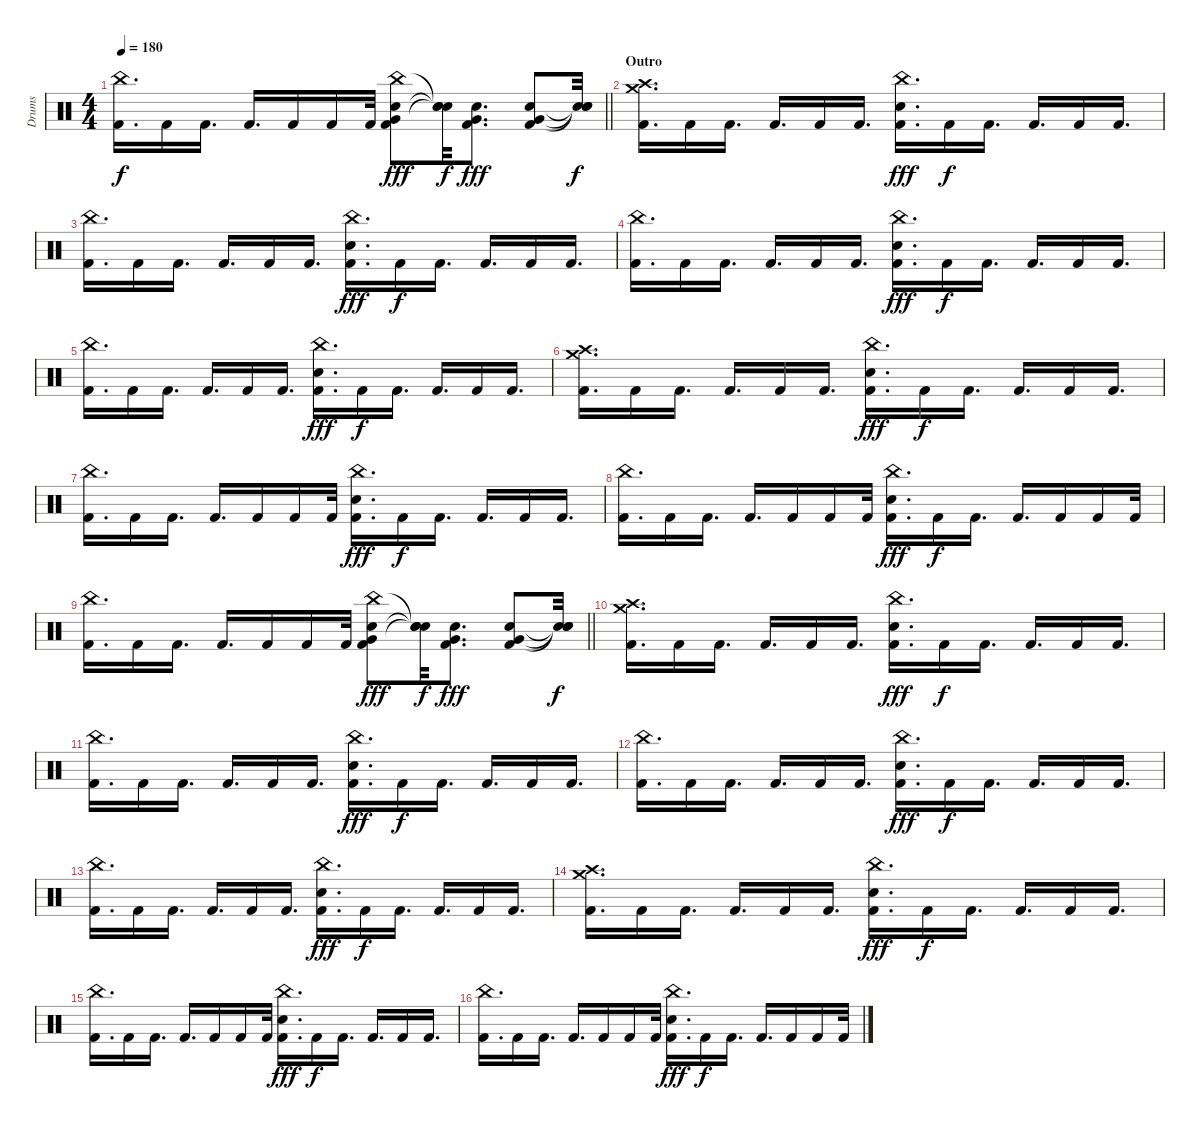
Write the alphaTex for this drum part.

\track ("Drums" "Drums") {instrument percussion}
\staff {score}
\articulation defaults
\ts (4 4)
\tempo 180
\clef neutral
\barLineRight lightlight
\ks c
("China (hit)" "Kick (hit) 2").16{d dy f} "Kick (hit) 2".16 "Kick (hit) 2".16{d} "Kick (hit) 2".16{d} "Kick (hit) 2".16 "Kick (hit) 2".16 "Kick (hit) 2".32 ("China (hit)" "Snare (hit) 2" "Very Low Tom (hit)" "Kick (hit) 2").8{dy fff} ("Snare (hit)"{t} "Snare (hit)"{t} "Snare (hit)"{t}).32{dy f} ("Snare (hit) 2" "Very Low Tom (hit)" "Kick (hit) 2").8{d dy fff} ("Snare (hit) 2" "Very Low Tom (hit)" "Kick (hit) 2").8 ("Snare (hit)"{t} "Snare (hit)"{t} "Snare (hit)"{t}).32{dy f} |
\section ("" "Outro")
("Crash high (hit)" "Crash medium (hit)" "Kick (hit) 2").16{d} "Kick (hit) 2".16 "Kick (hit) 2".16{d} "Kick (hit) 2".16{d} "Kick (hit) 2".16 "Kick (hit) 2".16{d} ("China (hit)" "Snare (hit) 2" "Kick (hit) 2").16{d dy fff} "Kick (hit) 2".16{dy f} "Kick (hit) 2".16{d} "Kick (hit) 2".16{d} "Kick (hit) 2".16 "Kick (hit) 2".16{d} |
("China (hit)" "Kick (hit) 2").16{d} "Kick (hit) 2".16 "Kick (hit) 2".16{d} "Kick (hit) 2".16{d} "Kick (hit) 2".16 "Kick (hit) 2".16{d} ("China (hit)" "Kick (hit) 2" "Snare (hit) 2").16{d dy fff} "Kick (hit) 2".16{dy f} "Kick (hit) 2".16{d} "Kick (hit) 2".16{d} "Kick (hit) 2".16 "Kick (hit) 2".16{d} |
("China (hit)" "Kick (hit) 2").16{d} "Kick (hit) 2".16 "Kick (hit) 2".16{d} "Kick (hit) 2".16{d} "Kick (hit) 2".16 "Kick (hit) 2".16{d} ("China (hit)" "Snare (hit) 2" "Kick (hit) 2").16{d dy fff} "Kick (hit) 2".16{dy f} "Kick (hit) 2".16{d} "Kick (hit) 2".16{d} "Kick (hit) 2".16 "Kick (hit) 2".16{d} |
("China (hit)" "Kick (hit) 2").16{d} "Kick (hit) 2".16 "Kick (hit) 2".16{d} "Kick (hit) 2".16{d} "Kick (hit) 2".16 "Kick (hit) 2".16{d} ("China (hit)" "Kick (hit) 2" "Snare (hit) 2").16{d dy fff} "Kick (hit) 2".16{dy f} "Kick (hit) 2".16{d} "Kick (hit) 2".16{d} "Kick (hit) 2".16 "Kick (hit) 2".16{d} |
("Crash high (hit)" "Crash medium (hit)" "Kick (hit) 2").16{d} "Kick (hit) 2".16 "Kick (hit) 2".16{d} "Kick (hit) 2".16{d} "Kick (hit) 2".16 "Kick (hit) 2".16{d} ("China (hit)" "Snare (hit) 2" "Kick (hit) 2").16{d dy fff} "Kick (hit) 2".16{dy f} "Kick (hit) 2".16{d} "Kick (hit) 2".16{d} "Kick (hit) 2".16 "Kick (hit) 2".16{d} |
("China (hit)" "Kick (hit) 2").16{d} "Kick (hit) 2".16 "Kick (hit) 2".16{d} "Kick (hit) 2".16{d} "Kick (hit) 2".16 "Kick (hit) 2".16 "Kick (hit) 2".32 ("China (hit)" "Kick (hit) 2" "Snare (hit) 2").16{d dy fff} "Kick (hit) 2".16{dy f} "Kick (hit) 2".16{d} "Kick (hit) 2".16{d} "Kick (hit) 2".16 "Kick (hit) 2".16{d} |
("Kick (hit) 2" "China (hit)").16{d} "Kick (hit) 2".16 "Kick (hit) 2".16{d} "Kick (hit) 2".16{d} "Kick (hit) 2".16 "Kick (hit) 2".16 "Kick (hit) 2".32 ("China (hit)" "Snare (hit) 2" "Kick (hit) 2").16{d dy fff} "Kick (hit) 2".16{dy f} "Kick (hit) 2".16{d} "Kick (hit) 2".16{d} "Kick (hit) 2".16 "Kick (hit) 2".16 "Kick (hit) 2".32 |
\barLineRight lightlight
("China (hit)" "Kick (hit) 2").16{d} "Kick (hit) 2".16 "Kick (hit) 2".16{d} "Kick (hit) 2".16{d} "Kick (hit) 2".16 "Kick (hit) 2".16 "Kick (hit) 2".32 ("China (hit)" "Snare (hit) 2" "Very Low Tom (hit)" "Kick (hit) 2").8{dy fff} ("Snare (hit)"{t} "Snare (hit)"{t} "Snare (hit)"{t}).32{dy f} ("Snare (hit) 2" "Very Low Tom (hit)" "Kick (hit) 2").8{d dy fff} ("Snare (hit) 2" "Very Low Tom (hit)" "Kick (hit) 2").8 ("Snare (hit)"{t} "Snare (hit)"{t} "Snare (hit)"{t}).32{dy f} |
("Crash high (hit)" "Crash medium (hit)" "Kick (hit) 2").16{d} "Kick (hit) 2".16 "Kick (hit) 2".16{d} "Kick (hit) 2".16{d} "Kick (hit) 2".16 "Kick (hit) 2".16{d} ("China (hit)" "Snare (hit) 2" "Kick (hit) 2").16{d dy fff} "Kick (hit) 2".16{dy f} "Kick (hit) 2".16{d} "Kick (hit) 2".16{d} "Kick (hit) 2".16 "Kick (hit) 2".16{d} |
("China (hit)" "Kick (hit) 2").16{d} "Kick (hit) 2".16 "Kick (hit) 2".16{d} "Kick (hit) 2".16{d} "Kick (hit) 2".16 "Kick (hit) 2".16{d} ("China (hit)" "Kick (hit) 2" "Snare (hit) 2").16{d dy fff} "Kick (hit) 2".16{dy f} "Kick (hit) 2".16{d} "Kick (hit) 2".16{d} "Kick (hit) 2".16 "Kick (hit) 2".16{d} |
("China (hit)" "Kick (hit) 2").16{d} "Kick (hit) 2".16 "Kick (hit) 2".16{d} "Kick (hit) 2".16{d} "Kick (hit) 2".16 "Kick (hit) 2".16{d} ("China (hit)" "Snare (hit) 2" "Kick (hit) 2").16{d dy fff} "Kick (hit) 2".16{dy f} "Kick (hit) 2".16{d} "Kick (hit) 2".16{d} "Kick (hit) 2".16 "Kick (hit) 2".16{d} |
("China (hit)" "Kick (hit) 2").16{d} "Kick (hit) 2".16 "Kick (hit) 2".16{d} "Kick (hit) 2".16{d} "Kick (hit) 2".16 "Kick (hit) 2".16{d} ("China (hit)" "Kick (hit) 2" "Snare (hit) 2").16{d dy fff} "Kick (hit) 2".16{dy f} "Kick (hit) 2".16{d} "Kick (hit) 2".16{d} "Kick (hit) 2".16 "Kick (hit) 2".16{d} |
("Crash high (hit)" "Crash medium (hit)" "Kick (hit) 2").16{d} "Kick (hit) 2".16 "Kick (hit) 2".16{d} "Kick (hit) 2".16{d} "Kick (hit) 2".16 "Kick (hit) 2".16{d} ("China (hit)" "Snare (hit) 2" "Kick (hit) 2").16{d dy fff} "Kick (hit) 2".16{dy f} "Kick (hit) 2".16{d} "Kick (hit) 2".16{d} "Kick (hit) 2".16 "Kick (hit) 2".16{d} |
("China (hit)" "Kick (hit) 2").16{d} "Kick (hit) 2".16 "Kick (hit) 2".16{d} "Kick (hit) 2".16{d} "Kick (hit) 2".16 "Kick (hit) 2".16 "Kick (hit) 2".32 ("China (hit)" "Kick (hit) 2" "Snare (hit) 2").16{d dy fff} "Kick (hit) 2".16{dy f} "Kick (hit) 2".16{d} "Kick (hit) 2".16{d} "Kick (hit) 2".16 "Kick (hit) 2".16{d} |
("Kick (hit) 2" "China (hit)").16{d} "Kick (hit) 2".16 "Kick (hit) 2".16{d} "Kick (hit) 2".16{d} "Kick (hit) 2".16 "Kick (hit) 2".16 "Kick (hit) 2".32 ("China (hit)" "Snare (hit) 2" "Kick (hit) 2").16{d dy fff} "Kick (hit) 2".16{dy f} "Kick (hit) 2".16{d} "Kick (hit) 2".16{d} "Kick (hit) 2".16 "Kick (hit) 2".16 "Kick (hit) 2".32
